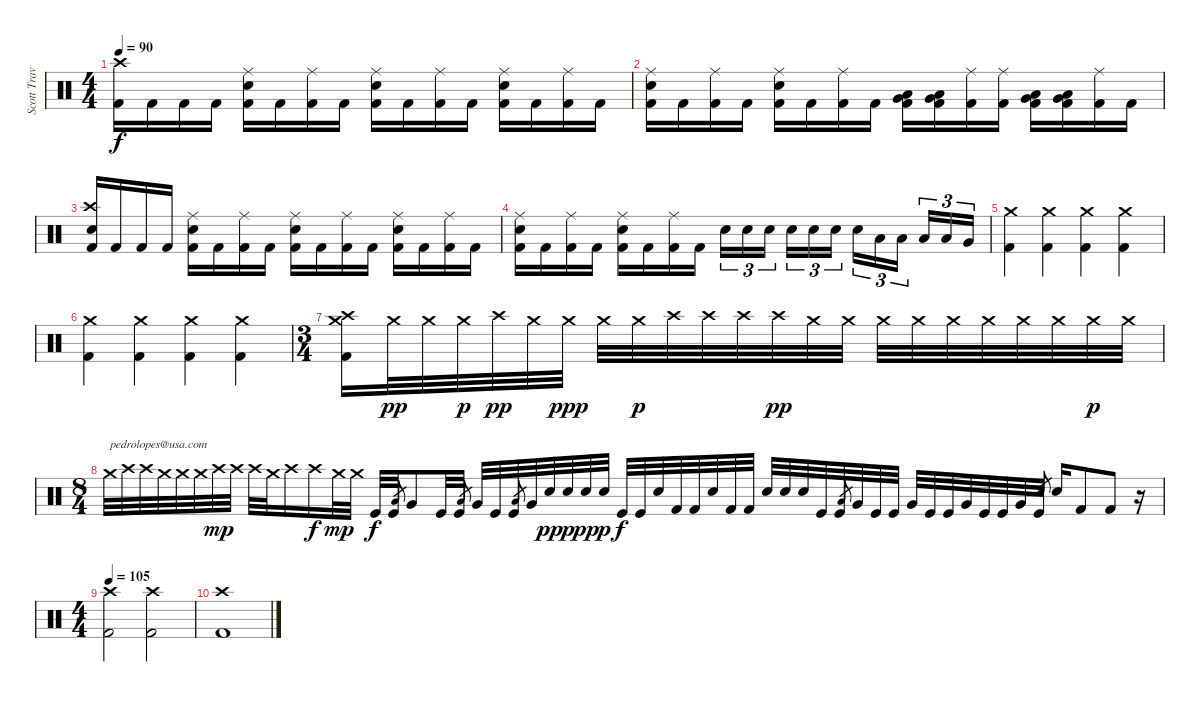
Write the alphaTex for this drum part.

\track ("Scott Travis" "Scott Trav") {instrument percussion}
\staff {score}
\articulation defaults
\ts (4 4)
\tempo 90
\clef neutral
\ks c
("Kick (hit) 2" "Crash high (hit)").16{dy f} "Kick (hit) 2".16 "Kick (hit) 2".16 "Kick (hit) 2".16 ("Kick (hit) 2" "Ride (middle)" "Electric Snare (hit)").16 "Kick (hit) 2".16 ("Kick (hit) 2" "Ride (middle)").16 "Kick (hit) 2".16 ("Kick (hit) 2" "Ride (middle)" "Electric Snare (hit)").16 "Kick (hit) 2".16 ("Kick (hit) 2" "Ride (middle)").16 "Kick (hit) 2".16 ("Kick (hit) 2" "Electric Snare (hit)" "Ride (middle)").16 "Kick (hit) 2".16 ("Kick (hit) 2" "Ride (middle)").16 "Kick (hit) 2".16 |
("Kick (hit) 2" "Ride (middle)" "Electric Snare (hit)").16 "Kick (hit) 2".16 ("Kick (hit) 2" "Ride (middle)").16 "Kick (hit) 2".16 ("Kick (hit) 2" "Ride (middle)" "Electric Snare (hit)").16 "Kick (hit) 2".16 ("Kick (hit) 2" "Ride (middle)").16 "Kick (hit) 2".16 ("Kick (hit) 2" "Low Tom (hit)" "Very Low Tom (hit)").16 ("Kick (hit) 2" "Low Tom (hit)" "Very Low Tom (hit)").16 ("Kick (hit) 2" "Ride (middle)").16 ("Kick (hit) 2" "Ride (middle)").16 ("Kick (hit) 2" "Low Tom (hit)" "Very Low Tom (hit)").16 ("Kick (hit) 2" "Low Tom (hit)" "Very Low Tom (hit)").16 ("Kick (hit) 2" "Ride (middle)").16 "Kick (hit) 2".16 |
("Electric Snare (hit)" "Kick (hit) 2" "Crash high (hit)").16 "Kick (hit) 2".16 "Kick (hit) 2".16 "Kick (hit) 2".16 ("Kick (hit) 2" "Ride (middle)" "Electric Snare (hit)").16 "Kick (hit) 2".16 ("Kick (hit) 2" "Ride (middle)").16 "Kick (hit) 2".16 ("Kick (hit) 2" "Ride (middle)" "Electric Snare (hit)").16 "Kick (hit) 2".16 ("Kick (hit) 2" "Ride (middle)").16 "Kick (hit) 2".16 ("Kick (hit) 2" "Electric Snare (hit)" "Ride (middle)").16 "Kick (hit) 2".16 ("Kick (hit) 2" "Ride (middle)").16 "Kick (hit) 2".16 |
("Kick (hit) 2" "Ride (middle)" "Electric Snare (hit)").16 "Kick (hit) 2".16 ("Kick (hit) 2" "Ride (middle)").16 "Kick (hit) 2".16 ("Kick (hit) 2" "Ride (middle)" "Electric Snare (hit)").16 "Kick (hit) 2".16 ("Kick (hit) 2" "Ride (middle)").16 "Kick (hit) 2".16 "Electric Snare (hit)".16{tu (3 2)} "Electric Snare (hit)".16{tu (3 2)} "Electric Snare (hit)".16{tu (3 2) beam splitsecondary} "Electric Snare (hit)".16{tu (3 2)} "Electric Snare (hit)".16{tu (3 2)} "Electric Snare (hit)".16{tu (3 2)} "Electric Snare (hit)".16{tu (3 2)} "Low Tom (hit)".16{tu (3 2)} "Low Tom (hit)".16{tu (3 2) beam splitsecondary} "Low Tom (hit)".16{tu (3 2)} "Low Tom (hit)".16{tu (3 2)} "Very Low Tom (hit)".16{tu (3 2)} |
("Kick (hit) 2" "Crash medium (hit)").4 ("Kick (hit) 2" "Crash medium (hit)").4 ("Kick (hit) 2" "Crash medium (hit)").4 ("Kick (hit) 2" "Crash medium (hit)").4 |
("Kick (hit) 2" "Crash medium (hit)").4 ("Kick (hit) 2" "Crash medium (hit)").4 ("Kick (hit) 2" "Crash medium (hit)").4 ("Kick (hit) 2" "Crash medium (hit)").4 |
\ts (3 4)
("Kick (hit) 2" "Crash medium (hit)" "Crash high (hit)").16 "Crash medium (hit)".32{dy pp} "Crash medium (hit)".32 "Crash medium (hit)".32{dy p} "Crash high (hit)".32{dy pp} "Crash medium (hit)".32 "Crash medium (hit)".32{dy ppp} "Crash medium (hit)".32 "Crash medium (hit)".32{dy p} "Crash high (hit)".32 "Crash high (hit)".32 "Crash high (hit)".32 "Crash high (hit)".32{dy pp} "Crash medium (hit)".32 "Crash medium (hit)".32 "Crash medium (hit)".32 "Crash medium (hit)".32 "Crash medium (hit)".32 "Crash medium (hit)".32 "Crash medium (hit)".32 "Crash medium (hit)".32 "Crash medium (hit)".32{dy p} "Crash medium (hit)".32 |
\ts (8 4)
"Crash medium (hit)".32{txt "pedrolopes@usa.com"} "Crash high (hit)".32 "Crash high (hit)".32 "Crash medium (hit)".32 "Crash medium (hit)".32 "Crash medium (hit)".32 "Crash high (hit)".32{dy mp} "Crash high (hit)".32 "Crash high (hit)".32 "Crash medium (hit)".32 "Crash high (hit)".16 "Crash high (hit)".16{dy f} "Crash medium (hit)".32{dy mp} "Crash medium (hit)".32 "Kick (hit)".32{dy f} "Kick (hit)".32 "Low Tom (hit)".8{gr} "Very Low Tom (hit)".8 "Kick (hit)".32 "Kick (hit)".32 "Low Tom (hit)".8{gr} "Very Low Tom (hit)".32 "Kick (hit)".32 "Kick (hit)".32 "Low Tom (hit)".8{gr} "Very Low Tom (hit)".32 "Electric Snare (hit)".32{dy pp} "Electric Snare (hit)".32{dy p} "Electric Snare (hit)".32{dy pp} "Electric Snare (hit)".32{dy p} "Kick (hit)".32{dy f} "Kick (hit)".32 "Electric Snare (hit)".32 "Kick (hit) 2".32 "Kick (hit) 2".32 "Electric Snare (hit)".32 "Kick (hit) 2".32 "Kick (hit) 2".32 "Electric Snare (hit)".32 "Electric Snare (hit)".32 "Electric Snare (hit)".32 "Kick (hit)".32 "Kick (hit)".32 "Low Tom (hit)".8{gr} "Very Low Tom (hit)".32 "Kick (hit)".32 "Kick (hit)".32 "Very Low Tom (hit)".32 "Kick (hit)".32 "Kick (hit)".32 "Very Low Tom (hit)".32 "Kick (hit)".32 "Kick (hit)".32 "Very Low Tom (hit)".32 "Kick (hit)".32 "Electric Snare (hit)".8{gr} "Electric Snare (hit)".16 "Kick (hit) 2".8 "Kick (hit) 2".8 r.16 |
\ts (4 4)
\tempo 105
("Kick (hit) 2" "Crash high (hit)").2 ("Kick (hit) 2" "Crash high (hit)").2 |
("Kick (hit) 2" "Crash high (hit)").1
